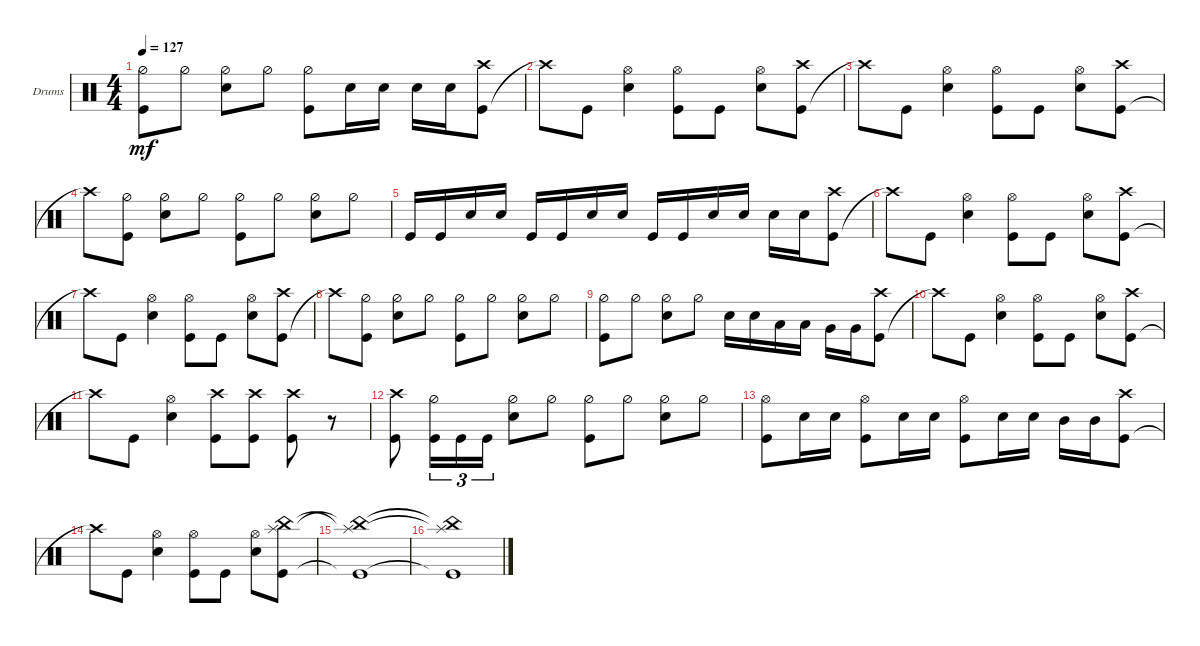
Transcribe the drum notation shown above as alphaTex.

\defaultSystemsLayout 4
\bracketExtendMode groupsimilarinstruments
\firstSystemTrackNameOrientation horizontal
\otherSystemsTrackNameOrientation horizontal
\track ("Drumkit" "Drums") {instrument percussion}
\staff {score}
\articulation defaults
\ts (4 4)
\tempo 127
\clef neutral
\scale
0.333333
\ks c
("Hi-Hat (half)" "Kick (hit)").8{dy mf} "Hi-Hat (half)".8 ("Hi-Hat (half)" "Snare (hit) 2").8 "Hi-Hat (half)".8 ("Kick (hit)" "Hi-Hat (half)").8 "Snare (hit) 2".16 "Snare (hit) 2".16 "Snare (hit) 2".16 "Snare (hit) 2".16 ("Kick (hit)" "Crash high (hit)").8 |
\scale
0.333333 "Crash high (hit)"{t}.8 "Kick (hit)".8 ("Snare (hit) 2" "Hi-Hat (open)").4 ("Kick (hit)" "Hi-Hat (open)").8 "Kick (hit)".8 ("Snare (hit) 2" "Hi-Hat (open)").8 ("Kick (hit)" "Crash high (hit)").8 |
\scale
0.333333 "Crash high (hit)"{t}.8 "Kick (hit)".8 ("Snare (hit) 2" "Hi-Hat (open)").4 ("Kick (hit)" "Hi-Hat (open)").8 "Kick (hit)".8 ("Snare (hit) 2" "Hi-Hat (open)").8 ("Kick (hit)" "Crash high (hit)").8 |
\scale
0.333333 "Crash high (hit)"{t}.8 ("Hi-Hat (half)" "Kick (hit)").8 ("Snare (hit) 2" "Hi-Hat (half)").8 "Hi-Hat (half)".8 ("Hi-Hat (half)" "Kick (hit)").8 "Hi-Hat (half)".8 ("Hi-Hat (half)" "Snare (hit) 2").8 "Hi-Hat (half)".8 |
\scale
0.333333 "Kick (hit)".16 "Kick (hit)".16 "Snare (hit) 2".16 "Snare (hit) 2".16 "Kick (hit)".16 "Kick (hit)".16 "Snare (hit) 2".16 "Snare (hit) 2".16 "Kick (hit)".16 "Kick (hit)".16 "Snare (hit) 2".16 "Snare (hit) 2".16 "Snare (hit) 2".16 "Snare (hit) 2".16 ("Kick (hit)" "Crash high (hit)").8 |
\scale
0.333333 "Crash high (hit)"{t}.8 "Kick (hit)".8 ("Snare (hit) 2" "Hi-Hat (open)").4 ("Kick (hit)" "Hi-Hat (open)").8 "Kick (hit)".8 ("Snare (hit) 2" "Hi-Hat (open)").8 ("Kick (hit)" "Crash high (hit)").8 |
\scale
0.333333 "Crash high (hit)"{t}.8 "Kick (hit)".8 ("Snare (hit) 2" "Hi-Hat (open)").4 ("Kick (hit)" "Hi-Hat (open)").8 "Kick (hit)".8 ("Snare (hit) 2" "Hi-Hat (open)").8 ("Kick (hit)" "Crash high (hit)").8 |
\scale
0.333333 "Crash high (hit)"{t}.8 ("Hi-Hat (half)" "Kick (hit)").8 ("Snare (hit) 2" "Hi-Hat (half)").8 "Hi-Hat (half)".8 ("Hi-Hat (half)" "Kick (hit)").8 "Hi-Hat (half)".8 ("Hi-Hat (half)" "Snare (hit) 2").8 "Hi-Hat (half)".8 |
\scale
0.333333 ("Hi-Hat (half)" "Kick (hit)").8 "Hi-Hat (half)".8 ("Hi-Hat (half)" "Snare (hit) 2").8 "Hi-Hat (half)".8 "Snare (hit) 2".16 "Snare (hit) 2".16 "Low Tom (hit)".16 "Low Tom (hit)".16 "Very Low Tom (hit)".16 "Very Low Tom (hit)".16 ("Kick (hit)" "Crash high (hit)").8 |
\scale
0.333333 "Crash high (hit)"{t}.8 "Kick (hit)".8 ("Snare (hit) 2" "Hi-Hat (open)").4 ("Kick (hit)" "Hi-Hat (open)").8 "Kick (hit)".8 ("Snare (hit) 2" "Hi-Hat (open)").8 ("Kick (hit)" "Crash high (hit)").8 |
\scale
0.333333 "Crash high (hit)"{t}.8 "Kick (hit)".8 ("Snare (hit) 2" "Hi-Hat (open)").4 ("Kick (hit)" "Crash high (hit)").8 ("Kick (hit)" "Crash high (hit)").8 ("Kick (hit)" "Crash high (hit)").8 r.8 |
\scale
0.333333 ("Kick (hit)" "Crash high (hit)").8 ("Kick (hit)" "Hi-Hat (half)").16{tu (3 2)} "Kick (hit)".16{tu (3 2)} "Kick (hit)".16{tu (3 2)} ("Snare (hit) 2" "Hi-Hat (half)").8 "Hi-Hat (half)".8 ("Hi-Hat (half)" "Kick (hit)").8 "Hi-Hat (half)".8 ("Hi-Hat (half)" "Snare (hit) 2").8 "Hi-Hat (half)".8 |
\scale
0.333333 ("Hi-Hat (open)" "Kick (hit)").8 "Snare (hit) 2".16 "Snare (hit) 2".16 ("Hi-Hat (open)" "Kick (hit)").8 "Snare (hit) 2".16 "Snare (hit) 2".16 ("Kick (hit)" "Hi-Hat (open)").8 "Snare (hit) 2".16 "Snare (hit) 2".16 "Mid Tom (hit)".16 "Mid Tom (hit)".16 ("Kick (hit)" "Crash high (hit)").8 |
\scale
0.333333 "Crash high (hit)"{t}.8 "Kick (hit)".8 ("Snare (hit) 2" "Hi-Hat (open)").4 ("Kick (hit)" "Hi-Hat (open)").8 "Kick (hit)".8 ("Snare (hit) 2" "Hi-Hat (open)").8 ("Kick (hit)" "China (hit)" "Splash (hit)").8 |
\scale
0.333333 ("Kick (hit)"{t} "Splash (hit)"{t} "China (hit)"{t}).1 |
\scale
0.333333 ("Kick (hit)"{t} "Splash (hit)"{t} "China (hit)"{t}).1
